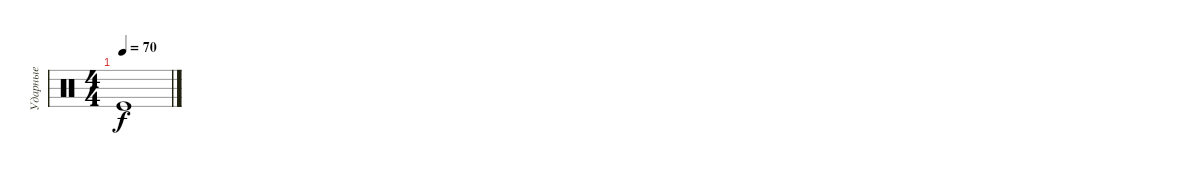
\track ("Ударные" "Ударные") {instrument percussion}
\staff
\articulation defaults
\ts (4 4)
\tempo 70
\clef neutral
\ks c "Kick (hit)".1{dy f}
